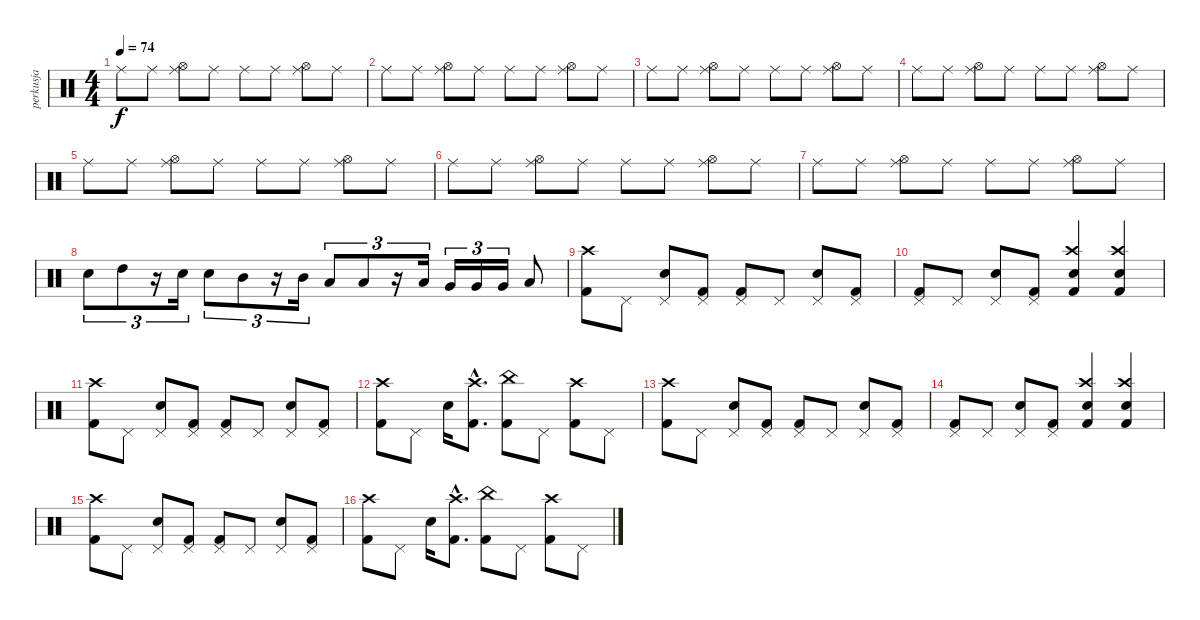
\track ("perkusja" "perkusja") {instrument percussion}
\staff {score}
\articulation defaults
\ts (4 4)
\tempo 74
\clef neutral
\ks c "Ride (middle)".8{dy f} "Ride (middle)".8
("Ride (middle)" "Hi-Hat (open)").8 "Ride (middle)".8 "Ride (middle)".8 "Ride (middle)".8 ("Ride (middle)" "Hi-Hat (open)").8 "Ride (middle)".8 |
"Ride (middle)".8 "Ride (middle)".8 ("Ride (middle)" "Hi-Hat (open)").8 "Ride (middle)".8 "Ride (middle)".8 "Ride (middle)".8 ("Ride (middle)" "Hi-Hat (open)").8 "Ride (middle)".8 |
"Ride (middle)".8 "Ride (middle)".8 ("Ride (middle)" "Hi-Hat (open)").8 "Ride (middle)".8 "Ride (middle)".8 "Ride (middle)".8 ("Ride (middle)" "Hi-Hat (open)").8 "Ride (middle)".8 |
"Ride (middle)".8 "Ride (middle)".8 ("Ride (middle)" "Hi-Hat (open)").8 "Ride (middle)".8 "Ride (middle)".8 "Ride (middle)".8 ("Ride (middle)" "Hi-Hat (open)").8 "Ride (middle)".8 |
"Ride (middle)".8 "Ride (middle)".8 ("Ride (middle)" "Hi-Hat (open)").8 "Ride (middle)".8 "Ride (middle)".8 "Ride (middle)".8 ("Ride (middle)" "Hi-Hat (open)").8 "Ride (middle)".8 |
"Ride (middle)".8 "Ride (middle)".8 ("Ride (middle)" "Hi-Hat (open)").8 "Ride (middle)".8 "Ride (middle)".8 "Ride (middle)".8 ("Ride (middle)" "Hi-Hat (open)").8 "Ride (middle)".8 |
"Ride (middle)".8 "Ride (middle)".8 ("Ride (middle)" "Hi-Hat (open)").8 "Ride (middle)".8 "Ride (middle)".8 "Ride (middle)".8 ("Ride (middle)" "Hi-Hat (open)").8 "Ride (middle)".8 |
"Electric Snare (hit)".8{tu (3 2)} "High Tom (hit)".8{tu (3 2)} r.16{tu (3 2)} "Electric Snare (hit)".16{tu (3 2)} "Electric Snare (hit)".8{tu (3 2)} "Mid Tom (hit)".8{tu (3 2)} r.16{tu (3 2)} "Mid Tom (hit)".16{tu (3 2)} "Low Tom (hit)".8{tu (3 2)} "Low Tom (hit)".8{tu (3 2)} r.16{tu (3 2)} "Low Tom (hit)".16{tu (3 2)} "Very Low Tom (hit)".16{tu (3 2)} "Very Low Tom (hit)".16{tu (3 2)} "Very Low Tom (hit)".16{tu (3 2)} "Low Floor Tom (hit)".8 |
("Crash high (hit)" "Kick (hit) 2").8 "Pedal Hi-Hat (hit)".8 ("Pedal Hi-Hat (hit)" "Electric Snare (hit)").8 ("Pedal Hi-Hat (hit)" "Kick (hit) 2").8 ("Pedal Hi-Hat (hit)" "Kick (hit) 2").8 "Pedal Hi-Hat (hit)".8 ("Pedal Hi-Hat (hit)" "Electric Snare (hit)").8 ("Pedal Hi-Hat (hit)" "Kick (hit) 2").8 |
("Pedal Hi-Hat (hit)" "Kick (hit) 2").8 "Pedal Hi-Hat (hit)".8 ("Pedal Hi-Hat (hit)" "Electric Snare (hit)").8 ("Pedal Hi-Hat (hit)" "Kick (hit) 2").8 ("Crash high (hit)" "Kick (hit) 2" "Electric Snare (hit)").4 ("Crash high (hit)" "Electric Snare (hit)" "Kick (hit) 2").4 |
("Crash high (hit)" "Kick (hit) 2").8 "Pedal Hi-Hat (hit)".8 ("Pedal Hi-Hat (hit)" "Electric Snare (hit)").8 ("Pedal Hi-Hat (hit)" "Kick (hit) 2").8 ("Pedal Hi-Hat (hit)" "Kick (hit) 2").8 "Pedal Hi-Hat (hit)".8 ("Pedal Hi-Hat (hit)" "Electric Snare (hit)").8 ("Pedal Hi-Hat (hit)" "Kick (hit) 2").8 |
("Crash high (hit)" "Kick (hit) 2").8 "Pedal Hi-Hat (hit)".8 "Electric Snare (hit)".16 ("Kick (hit) 2"{hac} "Crash high (hit)"{hac}).8{d} ("China (hit)" "Kick (hit) 2").8 "Pedal Hi-Hat (hit)".8 ("Crash high (hit)" "Kick (hit) 2").8 "Pedal Hi-Hat (hit)".8 |
("Crash high (hit)" "Kick (hit) 2").8 "Pedal Hi-Hat (hit)".8 ("Pedal Hi-Hat (hit)" "Electric Snare (hit)").8 ("Pedal Hi-Hat (hit)" "Kick (hit) 2").8 ("Pedal Hi-Hat (hit)" "Kick (hit) 2").8 "Pedal Hi-Hat (hit)".8 ("Pedal Hi-Hat (hit)" "Electric Snare (hit)").8 ("Pedal Hi-Hat (hit)" "Kick (hit) 2").8 |
("Pedal Hi-Hat (hit)" "Kick (hit) 2").8 "Pedal Hi-Hat (hit)".8 ("Pedal Hi-Hat (hit)" "Electric Snare (hit)").8 ("Pedal Hi-Hat (hit)" "Kick (hit) 2").8 ("Crash high (hit)" "Kick (hit) 2" "Electric Snare (hit)").4 ("Crash high (hit)" "Electric Snare (hit)" "Kick (hit) 2").4 |
("Crash high (hit)" "Kick (hit) 2").8 "Pedal Hi-Hat (hit)".8 ("Pedal Hi-Hat (hit)" "Electric Snare (hit)").8 ("Pedal Hi-Hat (hit)" "Kick (hit) 2").8 ("Pedal Hi-Hat (hit)" "Kick (hit) 2").8 "Pedal Hi-Hat (hit)".8 ("Pedal Hi-Hat (hit)" "Electric Snare (hit)").8 ("Pedal Hi-Hat (hit)" "Kick (hit) 2").8 |
("Crash high (hit)" "Kick (hit) 2").8 "Pedal Hi-Hat (hit)".8 "Electric Snare (hit)".16 ("Kick (hit) 2"{hac} "Crash high (hit)"{hac}).8{d} ("China (hit)" "Kick (hit) 2").8 "Pedal Hi-Hat (hit)".8 ("Crash high (hit)" "Kick (hit) 2").8 "Pedal Hi-Hat (hit)".8
